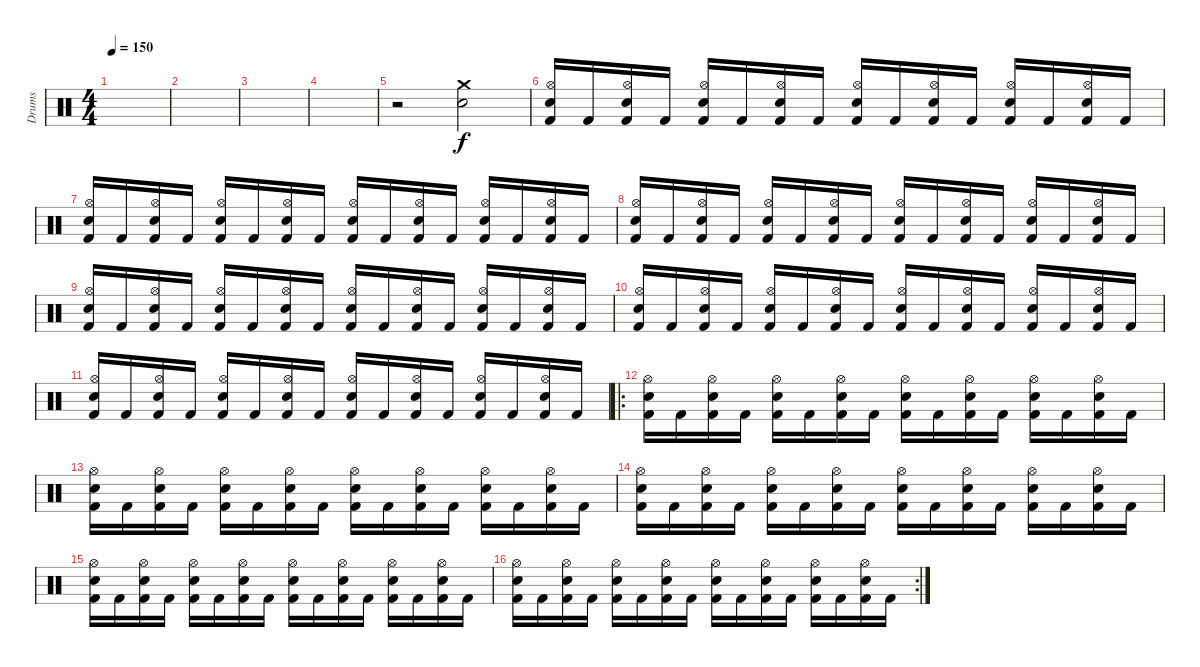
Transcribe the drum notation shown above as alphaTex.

\track ("Drums" "Drums") {instrument percussion}
\staff {score}
\articulation defaults
\ts (4 4)
\tempo 150
\clef neutral
\ks aminor
|
|
|
|
r.2 ("Crash medium (hit)" "Snare (hit) 2").2 |
("Hi-Hat (open)" "Snare (hit) 2" "Kick (hit) 2").16 "Kick (hit) 2".16 ("Hi-Hat (open)" "Snare (hit) 2" "Kick (hit) 2").16 "Kick (hit) 2".16 ("Hi-Hat (open)" "Snare (hit) 2" "Kick (hit) 2").16 "Kick (hit) 2".16 ("Hi-Hat (open)" "Snare (hit) 2" "Kick (hit) 2").16 "Kick (hit) 2".16 ("Hi-Hat (open)" "Snare (hit) 2" "Kick (hit) 2").16 "Kick (hit) 2".16 ("Hi-Hat (open)" "Snare (hit) 2" "Kick (hit) 2").16 "Kick (hit) 2".16 ("Hi-Hat (open)" "Snare (hit) 2" "Kick (hit) 2").16 "Kick (hit) 2".16 ("Hi-Hat (open)" "Snare (hit) 2" "Kick (hit) 2").16 "Kick (hit) 2".16 |
("Hi-Hat (open)" "Snare (hit) 2" "Kick (hit) 2").16 "Kick (hit) 2".16 ("Hi-Hat (open)" "Snare (hit) 2" "Kick (hit) 2").16 "Kick (hit) 2".16 ("Hi-Hat (open)" "Snare (hit) 2" "Kick (hit) 2").16 "Kick (hit) 2".16 ("Hi-Hat (open)" "Snare (hit) 2" "Kick (hit) 2").16 "Kick (hit) 2".16 ("Hi-Hat (open)" "Snare (hit) 2" "Kick (hit) 2").16 "Kick (hit) 2".16 ("Hi-Hat (open)" "Snare (hit) 2" "Kick (hit) 2").16 "Kick (hit) 2".16 ("Hi-Hat (open)" "Snare (hit) 2" "Kick (hit) 2").16 "Kick (hit) 2".16 ("Hi-Hat (open)" "Snare (hit) 2" "Kick (hit) 2").16 "Kick (hit) 2".16 |
("Hi-Hat (open)" "Snare (hit) 2" "Kick (hit) 2").16 "Kick (hit) 2".16 ("Hi-Hat (open)" "Snare (hit) 2" "Kick (hit) 2").16 "Kick (hit) 2".16 ("Hi-Hat (open)" "Snare (hit) 2" "Kick (hit) 2").16 "Kick (hit) 2".16 ("Hi-Hat (open)" "Snare (hit) 2" "Kick (hit) 2").16 "Kick (hit) 2".16 ("Hi-Hat (open)" "Snare (hit) 2" "Kick (hit) 2").16 "Kick (hit) 2".16 ("Hi-Hat (open)" "Snare (hit) 2" "Kick (hit) 2").16 "Kick (hit) 2".16 ("Hi-Hat (open)" "Snare (hit) 2" "Kick (hit) 2").16 "Kick (hit) 2".16 ("Hi-Hat (open)" "Snare (hit) 2" "Kick (hit) 2").16 "Kick (hit) 2".16 |
("Hi-Hat (open)" "Snare (hit) 2" "Kick (hit) 2").16 "Kick (hit) 2".16 ("Hi-Hat (open)" "Snare (hit) 2" "Kick (hit) 2").16 "Kick (hit) 2".16 ("Hi-Hat (open)" "Snare (hit) 2" "Kick (hit) 2").16 "Kick (hit) 2".16 ("Hi-Hat (open)" "Snare (hit) 2" "Kick (hit) 2").16 "Kick (hit) 2".16 ("Hi-Hat (open)" "Snare (hit) 2" "Kick (hit) 2").16 "Kick (hit) 2".16 ("Hi-Hat (open)" "Snare (hit) 2" "Kick (hit) 2").16 "Kick (hit) 2".16 ("Hi-Hat (open)" "Snare (hit) 2" "Kick (hit) 2").16 "Kick (hit) 2".16 ("Hi-Hat (open)" "Snare (hit) 2" "Kick (hit) 2").16 "Kick (hit) 2".16 |
("Hi-Hat (open)" "Snare (hit) 2" "Kick (hit) 2").16 "Kick (hit) 2".16 ("Hi-Hat (open)" "Snare (hit) 2" "Kick (hit) 2").16 "Kick (hit) 2".16 ("Hi-Hat (open)" "Snare (hit) 2" "Kick (hit) 2").16 "Kick (hit) 2".16 ("Hi-Hat (open)" "Snare (hit) 2" "Kick (hit) 2").16 "Kick (hit) 2".16 ("Hi-Hat (open)" "Snare (hit) 2" "Kick (hit) 2").16 "Kick (hit) 2".16 ("Hi-Hat (open)" "Snare (hit) 2" "Kick (hit) 2").16 "Kick (hit) 2".16 ("Hi-Hat (open)" "Snare (hit) 2" "Kick (hit) 2").16 "Kick (hit) 2".16 ("Hi-Hat (open)" "Snare (hit) 2" "Kick (hit) 2").16 "Kick (hit) 2".16 |
("Hi-Hat (open)" "Snare (hit) 2" "Kick (hit) 2").16 "Kick (hit) 2".16 ("Hi-Hat (open)" "Snare (hit) 2" "Kick (hit) 2").16 "Kick (hit) 2".16 ("Hi-Hat (open)" "Snare (hit) 2" "Kick (hit) 2").16 "Kick (hit) 2".16 ("Hi-Hat (open)" "Snare (hit) 2" "Kick (hit) 2").16 "Kick (hit) 2".16 ("Hi-Hat (open)" "Snare (hit) 2" "Kick (hit) 2").16 "Kick (hit) 2".16 ("Hi-Hat (open)" "Snare (hit) 2" "Kick (hit) 2").16 "Kick (hit) 2".16 ("Hi-Hat (open)" "Snare (hit) 2" "Kick (hit) 2").16 "Kick (hit) 2".16 ("Hi-Hat (open)" "Snare (hit) 2" "Kick (hit) 2").16 "Kick (hit) 2".16 |
\ro
("Hi-Hat (open)" "Electric Snare (hit)" "Kick (hit) 2").16 "Kick (hit) 2".16 ("Hi-Hat (open)" "Electric Snare (hit)" "Kick (hit) 2").16 "Kick (hit) 2".16 ("Hi-Hat (open)" "Electric Snare (hit)" "Kick (hit) 2").16 "Kick (hit) 2".16 ("Hi-Hat (open)" "Electric Snare (hit)" "Kick (hit) 2").16 "Kick (hit) 2".16 ("Hi-Hat (open)" "Electric Snare (hit)" "Kick (hit) 2").16 "Kick (hit) 2".16 ("Hi-Hat (open)" "Electric Snare (hit)" "Kick (hit) 2").16 "Kick (hit) 2".16 ("Hi-Hat (open)" "Electric Snare (hit)" "Kick (hit) 2").16 "Kick (hit) 2".16 ("Hi-Hat (open)" "Electric Snare (hit)" "Kick (hit) 2").16 "Kick (hit) 2".16 |
("Hi-Hat (open)" "Electric Snare (hit)" "Kick (hit) 2").16 "Kick (hit) 2".16 ("Hi-Hat (open)" "Electric Snare (hit)" "Kick (hit) 2").16 "Kick (hit) 2".16 ("Hi-Hat (open)" "Electric Snare (hit)" "Kick (hit) 2").16 "Kick (hit) 2".16 ("Hi-Hat (open)" "Electric Snare (hit)" "Kick (hit) 2").16 "Kick (hit) 2".16 ("Hi-Hat (open)" "Electric Snare (hit)" "Kick (hit) 2").16 "Kick (hit) 2".16 ("Hi-Hat (open)" "Electric Snare (hit)" "Kick (hit) 2").16 "Kick (hit) 2".16 ("Hi-Hat (open)" "Electric Snare (hit)" "Kick (hit) 2").16 "Kick (hit) 2".16 ("Hi-Hat (open)" "Electric Snare (hit)" "Kick (hit) 2").16 "Kick (hit) 2".16 |
("Hi-Hat (open)" "Electric Snare (hit)" "Kick (hit) 2").16 "Kick (hit) 2".16 ("Hi-Hat (open)" "Electric Snare (hit)" "Kick (hit) 2").16 "Kick (hit) 2".16 ("Hi-Hat (open)" "Electric Snare (hit)" "Kick (hit) 2").16 "Kick (hit) 2".16 ("Hi-Hat (open)" "Electric Snare (hit)" "Kick (hit) 2").16 "Kick (hit) 2".16 ("Hi-Hat (open)" "Electric Snare (hit)" "Kick (hit) 2").16 "Kick (hit) 2".16 ("Hi-Hat (open)" "Electric Snare (hit)" "Kick (hit) 2").16 "Kick (hit) 2".16 ("Hi-Hat (open)" "Electric Snare (hit)" "Kick (hit) 2").16 "Kick (hit) 2".16 ("Hi-Hat (open)" "Electric Snare (hit)" "Kick (hit) 2").16 "Kick (hit) 2".16 |
("Hi-Hat (open)" "Electric Snare (hit)" "Kick (hit) 2").16 "Kick (hit) 2".16 ("Hi-Hat (open)" "Electric Snare (hit)" "Kick (hit) 2").16 "Kick (hit) 2".16 ("Hi-Hat (open)" "Electric Snare (hit)" "Kick (hit) 2").16 "Kick (hit) 2".16 ("Hi-Hat (open)" "Electric Snare (hit)" "Kick (hit) 2").16 "Kick (hit) 2".16 ("Hi-Hat (open)" "Electric Snare (hit)" "Kick (hit) 2").16 "Kick (hit) 2".16 ("Hi-Hat (open)" "Electric Snare (hit)" "Kick (hit) 2").16 "Kick (hit) 2".16 ("Hi-Hat (open)" "Electric Snare (hit)" "Kick (hit) 2").16 "Kick (hit) 2".16 ("Hi-Hat (open)" "Electric Snare (hit)" "Kick (hit) 2").16 "Kick (hit) 2".16 |
\rc 2
("Hi-Hat (open)" "Electric Snare (hit)" "Kick (hit) 2").16 "Kick (hit) 2".16 ("Hi-Hat (open)" "Electric Snare (hit)" "Kick (hit) 2").16 "Kick (hit) 2".16 ("Hi-Hat (open)" "Electric Snare (hit)" "Kick (hit) 2").16 "Kick (hit) 2".16 ("Hi-Hat (open)" "Electric Snare (hit)" "Kick (hit) 2").16 "Kick (hit) 2".16 ("Hi-Hat (open)" "Electric Snare (hit)" "Kick (hit) 2").16 "Kick (hit) 2".16 ("Hi-Hat (open)" "Electric Snare (hit)" "Kick (hit) 2").16 "Kick (hit) 2".16 ("Hi-Hat (open)" "Electric Snare (hit)" "Kick (hit) 2").16 "Kick (hit) 2".16 ("Hi-Hat (open)" "Electric Snare (hit)" "Kick (hit) 2").16 "Kick (hit) 2".16
